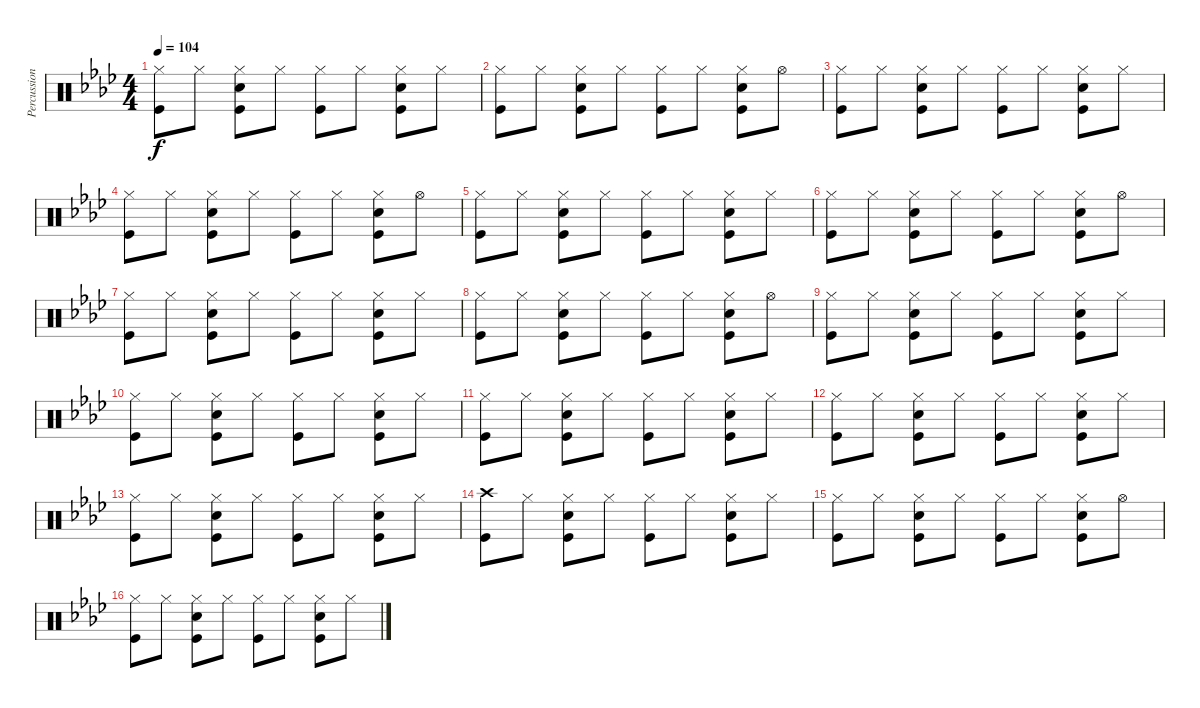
\track ("Percussion" "Percussion") {instrument percussion}
\staff {score}
\articulation defaults
\ts (4 4)
\tempo 104
\clef neutral
\ks ab
("Hi-Hat (closed)" "Kick (hit)").8{dy f} "Hi-Hat (closed)".8 ("Hi-Hat (closed)" "Snare (hit) 2" "Kick (hit)").8 "Hi-Hat (closed)".8 ("Hi-Hat (closed)" "Kick (hit)").8 "Hi-Hat (closed)".8 ("Hi-Hat (closed)" "Snare (hit) 2" "Kick (hit)").8 "Hi-Hat (closed)".8 |
("Hi-Hat (closed)" "Kick (hit)").8 "Hi-Hat (closed)".8 ("Hi-Hat (closed)" "Snare (hit) 2" "Kick (hit)").8 "Hi-Hat (closed)".8 ("Hi-Hat (closed)" "Kick (hit)").8 "Hi-Hat (closed)".8 ("Hi-Hat (closed)" "Snare (hit) 2" "Kick (hit)").8 "Hi-Hat (open)".8 |
("Hi-Hat (closed)" "Kick (hit)").8 "Hi-Hat (closed)".8 ("Hi-Hat (closed)" "Snare (hit) 2" "Kick (hit)").8 "Hi-Hat (closed)".8 ("Hi-Hat (closed)" "Kick (hit)").8 "Hi-Hat (closed)".8 ("Hi-Hat (closed)" "Snare (hit) 2" "Kick (hit)").8 "Hi-Hat (closed)".8 |
("Hi-Hat (closed)" "Kick (hit)").8 "Hi-Hat (closed)".8 ("Hi-Hat (closed)" "Snare (hit) 2" "Kick (hit)").8 "Hi-Hat (closed)".8 ("Hi-Hat (closed)" "Kick (hit)").8 "Hi-Hat (closed)".8 ("Hi-Hat (closed)" "Snare (hit) 2" "Kick (hit)").8 "Hi-Hat (open)".8 |
("Hi-Hat (closed)" "Kick (hit)").8 "Hi-Hat (closed)".8 ("Hi-Hat (closed)" "Snare (hit) 2" "Kick (hit)").8 "Hi-Hat (closed)".8 ("Hi-Hat (closed)" "Kick (hit)").8 "Hi-Hat (closed)".8 ("Hi-Hat (closed)" "Snare (hit) 2" "Kick (hit)").8 "Hi-Hat (closed)".8 |
("Hi-Hat (closed)" "Kick (hit)").8 "Hi-Hat (closed)".8 ("Hi-Hat (closed)" "Snare (hit) 2" "Kick (hit)").8 "Hi-Hat (closed)".8 ("Hi-Hat (closed)" "Kick (hit)").8 "Hi-Hat (closed)".8 ("Hi-Hat (closed)" "Snare (hit) 2" "Kick (hit)").8 "Hi-Hat (open)".8 |
("Hi-Hat (closed)" "Kick (hit)").8 "Hi-Hat (closed)".8 ("Hi-Hat (closed)" "Snare (hit) 2" "Kick (hit)").8 "Hi-Hat (closed)".8 ("Hi-Hat (closed)" "Kick (hit)").8 "Hi-Hat (closed)".8 ("Hi-Hat (closed)" "Snare (hit) 2" "Kick (hit)").8 "Hi-Hat (closed)".8 |
("Hi-Hat (closed)" "Kick (hit)").8 "Hi-Hat (closed)".8 ("Hi-Hat (closed)" "Snare (hit) 2" "Kick (hit)").8 "Hi-Hat (closed)".8 ("Hi-Hat (closed)" "Kick (hit)").8 "Hi-Hat (closed)".8 ("Hi-Hat (closed)" "Snare (hit) 2" "Kick (hit)").8 "Hi-Hat (open)".8 |
("Hi-Hat (closed)" "Kick (hit)").8 "Hi-Hat (closed)".8 ("Hi-Hat (closed)" "Snare (hit) 2" "Kick (hit)").8 "Hi-Hat (closed)".8 ("Hi-Hat (closed)" "Kick (hit)").8 "Hi-Hat (closed)".8 ("Hi-Hat (closed)" "Snare (hit) 2" "Kick (hit)").8 "Hi-Hat (closed)".8 |
("Hi-Hat (closed)" "Kick (hit)").8 "Hi-Hat (closed)".8 ("Hi-Hat (closed)" "Snare (hit) 2" "Kick (hit)").8 "Hi-Hat (closed)".8 ("Hi-Hat (closed)" "Kick (hit)").8 "Hi-Hat (closed)".8 ("Hi-Hat (closed)" "Snare (hit) 2" "Kick (hit)").8 "Hi-Hat (closed)".8 |
("Hi-Hat (closed)" "Kick (hit)").8 "Hi-Hat (closed)".8 ("Hi-Hat (closed)" "Snare (hit) 2" "Kick (hit)").8 "Hi-Hat (closed)".8 ("Hi-Hat (closed)" "Kick (hit)").8 "Hi-Hat (closed)".8 ("Hi-Hat (closed)" "Snare (hit) 2" "Kick (hit)").8 "Hi-Hat (closed)".8 |
("Hi-Hat (closed)" "Kick (hit)").8 "Hi-Hat (closed)".8 ("Hi-Hat (closed)" "Snare (hit) 2" "Kick (hit)").8 "Hi-Hat (closed)".8 ("Hi-Hat (closed)" "Kick (hit)").8 "Hi-Hat (closed)".8 ("Hi-Hat (closed)" "Snare (hit) 2" "Kick (hit)").8 "Hi-Hat (closed)".8 |
("Hi-Hat (closed)" "Kick (hit)").8 "Hi-Hat (closed)".8 ("Hi-Hat (closed)" "Snare (hit) 2" "Kick (hit)").8 "Hi-Hat (closed)".8 ("Hi-Hat (closed)" "Kick (hit)").8 "Hi-Hat (closed)".8 ("Hi-Hat (closed)" "Snare (hit) 2" "Kick (hit)").8 "Hi-Hat (closed)".8 |
("Crash high (hit)" "Kick (hit)").8 "Hi-Hat (closed)".8 ("Hi-Hat (closed)" "Snare (hit) 2" "Kick (hit)").8 "Hi-Hat (closed)".8 ("Hi-Hat (closed)" "Kick (hit)").8 "Hi-Hat (closed)".8 ("Hi-Hat (closed)" "Snare (hit) 2" "Kick (hit)").8 "Hi-Hat (closed)".8 |
("Hi-Hat (closed)" "Kick (hit)").8 "Hi-Hat (closed)".8 ("Hi-Hat (closed)" "Snare (hit) 2" "Kick (hit)").8 "Hi-Hat (closed)".8 ("Hi-Hat (closed)" "Kick (hit)").8 "Hi-Hat (closed)".8 ("Hi-Hat (closed)" "Snare (hit) 2" "Kick (hit)").8 "Hi-Hat (open)".8 |
("Hi-Hat (closed)" "Kick (hit)").8 "Hi-Hat (closed)".8 ("Hi-Hat (closed)" "Snare (hit) 2" "Kick (hit)").8 "Hi-Hat (closed)".8 ("Hi-Hat (closed)" "Kick (hit)").8 "Hi-Hat (closed)".8 ("Hi-Hat (closed)" "Snare (hit) 2" "Kick (hit)").8 "Hi-Hat (closed)".8
